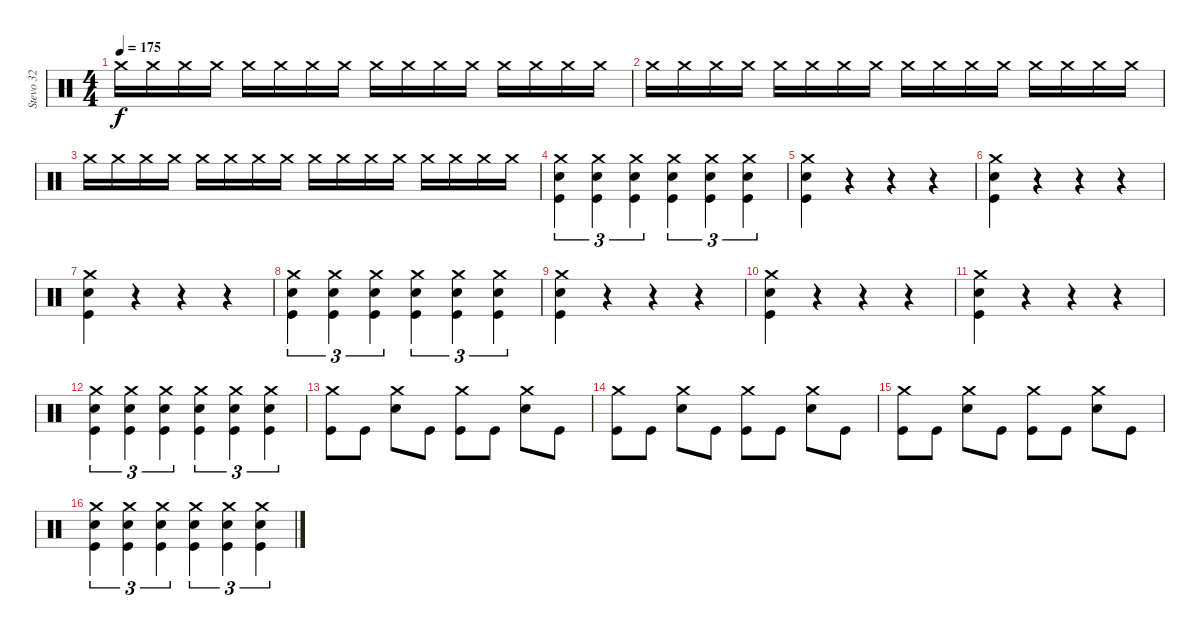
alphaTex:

\track ("Stevo 32" "Stevo 32") {instrument percussion}
\staff {score}
\articulation defaults
\ts (4 4)
\tempo 175
\clef neutral
\ks c "Crash medium (hit)".16{dy f} "Crash medium (hit)".16 "Crash medium (hit)".16 "Crash medium (hit)".16 "Crash medium (hit)".16 "Crash medium (hit)".16 "Crash medium (hit)".16 "Crash medium (hit)".16 "Crash medium (hit)".16 "Crash medium (hit)".16 "Crash medium (hit)".16 "Crash medium (hit)".16 "Crash medium (hit)".16 "Crash medium (hit)".16 "Crash medium (hit)".16 "Crash medium (hit)".16
|
"Crash medium (hit)".16 "Crash medium (hit)".16 "Crash medium (hit)".16 "Crash medium (hit)".16 "Crash medium (hit)".16 "Crash medium (hit)".16 "Crash medium (hit)".16 "Crash medium (hit)".16 "Crash medium (hit)".16 "Crash medium (hit)".16 "Crash medium (hit)".16 "Crash medium (hit)".16 "Crash medium (hit)".16 "Crash medium (hit)".16 "Crash medium (hit)".16 "Crash medium (hit)".16 |
"Crash medium (hit)".16 "Crash medium (hit)".16 "Crash medium (hit)".16 "Crash medium (hit)".16 "Crash medium (hit)".16 "Crash medium (hit)".16 "Crash medium (hit)".16 "Crash medium (hit)".16 "Crash medium (hit)".16 "Crash medium (hit)".16 "Crash medium (hit)".16 "Crash medium (hit)".16 "Crash medium (hit)".16 "Crash medium (hit)".16 "Crash medium (hit)".16 "Crash medium (hit)".16 |
("Crash medium (hit)" "Snare (hit) 2" "Kick (hit)").4{tu (3 2)} ("Crash medium (hit)" "Snare (hit) 2" "Kick (hit)").4{tu (3 2)} ("Crash medium (hit)" "Snare (hit) 2" "Kick (hit)").4{tu (3 2)} ("Crash medium (hit)" "Snare (hit) 2" "Kick (hit)").4{tu (3 2)} ("Crash medium (hit)" "Snare (hit) 2" "Kick (hit)").4{tu (3 2)} ("Crash medium (hit)" "Snare (hit) 2" "Kick (hit)").4{tu (3 2)} |
("Crash medium (hit)" "Snare (hit) 2" "Kick (hit)").4 r.4 r.4 r.4 |
("Crash medium (hit)" "Snare (hit) 2" "Kick (hit)").4 r.4 r.4 r.4 |
("Crash medium (hit)" "Snare (hit) 2" "Kick (hit)").4 r.4 r.4 r.4 |
("Crash medium (hit)" "Snare (hit) 2" "Kick (hit)").4{tu (3 2)} ("Crash medium (hit)" "Snare (hit) 2" "Kick (hit)").4{tu (3 2)} ("Crash medium (hit)" "Snare (hit) 2" "Kick (hit)").4{tu (3 2)} ("Crash medium (hit)" "Snare (hit) 2" "Kick (hit)").4{tu (3 2)} ("Crash medium (hit)" "Snare (hit) 2" "Kick (hit)").4{tu (3 2)} ("Crash medium (hit)" "Snare (hit) 2" "Kick (hit)").4{tu (3 2)} |
("Crash medium (hit)" "Snare (hit) 2" "Kick (hit)").4 r.4 r.4 r.4 |
("Crash medium (hit)" "Snare (hit) 2" "Kick (hit)").4 r.4 r.4 r.4 |
("Crash medium (hit)" "Snare (hit) 2" "Kick (hit)").4 r.4 r.4 r.4 |
("Crash medium (hit)" "Snare (hit) 2" "Kick (hit)").4{tu (3 2)} ("Crash medium (hit)" "Snare (hit) 2" "Kick (hit)").4{tu (3 2)} ("Crash medium (hit)" "Snare (hit) 2" "Kick (hit)").4{tu (3 2)} ("Crash medium (hit)" "Snare (hit) 2" "Kick (hit)").4{tu (3 2)} ("Crash medium (hit)" "Snare (hit) 2" "Kick (hit)").4{tu (3 2)} ("Crash medium (hit)" "Snare (hit) 2" "Kick (hit)").4{tu (3 2)} |
("Crash medium (hit)" "Kick (hit)").8 "Kick (hit)".8 ("Crash medium (hit)" "Snare (hit) 2").8 "Kick (hit)".8 ("Crash medium (hit)" "Kick (hit)").8 "Kick (hit)".8 ("Crash medium (hit)" "Snare (hit) 2").8 "Kick (hit)".8 |
("Crash medium (hit)" "Kick (hit)").8 "Kick (hit)".8 ("Crash medium (hit)" "Snare (hit) 2").8 "Kick (hit)".8 ("Crash medium (hit)" "Kick (hit)").8 "Kick (hit)".8 ("Crash medium (hit)" "Snare (hit) 2").8 "Kick (hit)".8 |
("Crash medium (hit)" "Kick (hit)").8 "Kick (hit)".8 ("Crash medium (hit)" "Snare (hit) 2").8 "Kick (hit)".8 ("Crash medium (hit)" "Kick (hit)").8 "Kick (hit)".8 ("Crash medium (hit)" "Snare (hit) 2").8 "Kick (hit)".8 |
("Crash medium (hit)" "Snare (hit) 2" "Kick (hit)").4{tu (3 2)} ("Crash medium (hit)" "Snare (hit) 2" "Kick (hit)").4{tu (3 2)} ("Crash medium (hit)" "Snare (hit) 2" "Kick (hit)").4{tu (3 2)} ("Crash medium (hit)" "Snare (hit) 2" "Kick (hit)").4{tu (3 2)} ("Crash medium (hit)" "Snare (hit) 2" "Kick (hit)").4{tu (3 2)} ("Crash medium (hit)" "Snare (hit) 2" "Kick (hit)").4{tu (3 2)}
